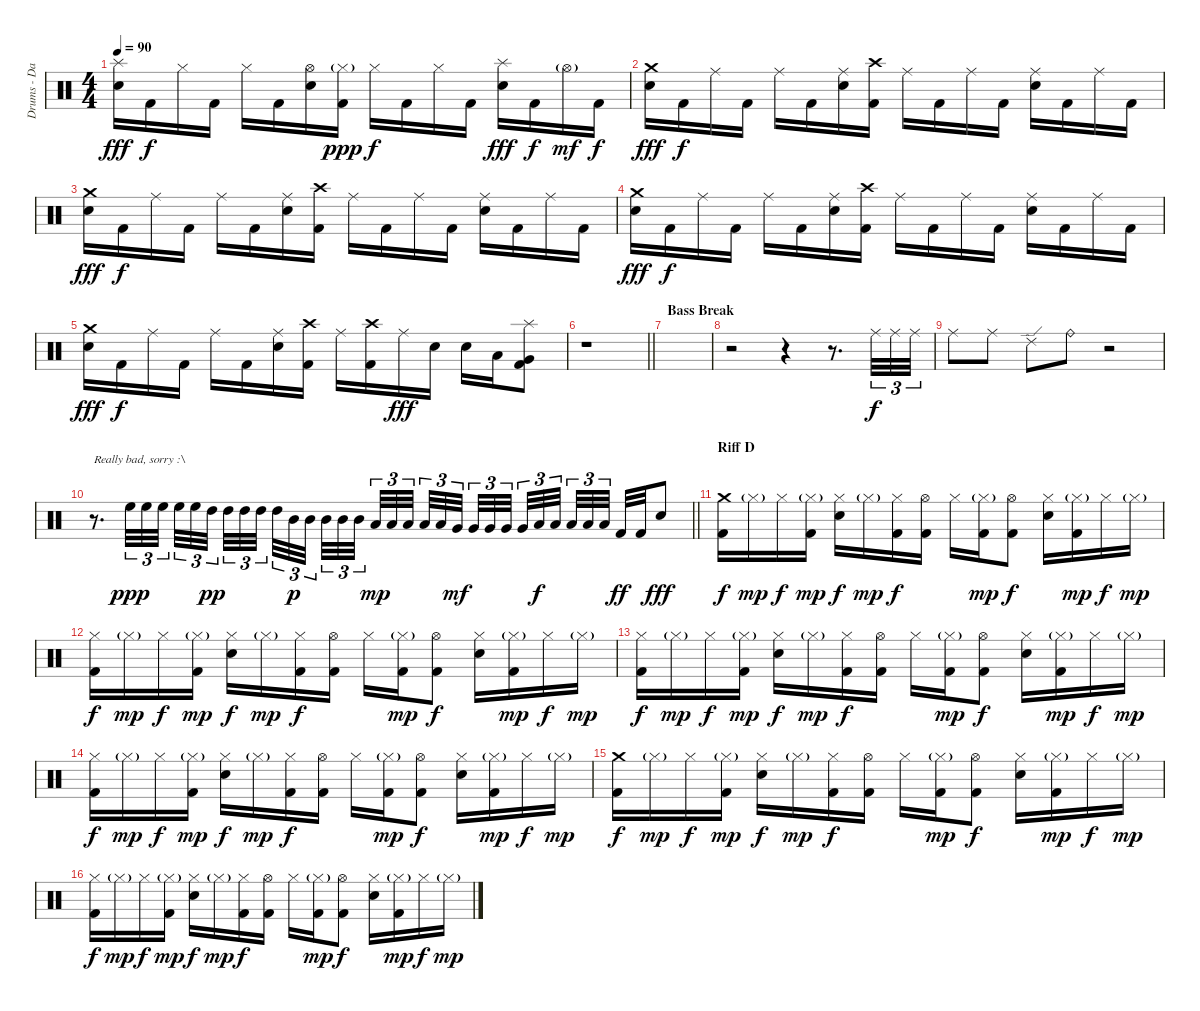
\track ("Drums - Danny Carey" "Drums - Da") {instrument percussion}
\staff {score}
\articulation defaults
\ts (4 4)
\tempo 90
\clef neutral
\ks c
("Splash (hit)" "Electric Snare (hit)").16{dy fff} "Kick (hit) 2".16{dy f} "Hi-Hat (closed)".16 "Kick (hit) 2".16 "Hi-Hat (closed)".16 "Kick (hit) 2".16 ("Electric Snare (hit)" "Hi-Hat (open)").16 ("Kick (hit) 2" "Hi-Hat (closed)"{g}).16{dy ppp} "Hi-Hat (closed)".16{dy f} "Kick (hit) 2".16 "Hi-Hat (closed)".16 "Kick (hit) 2".16 ("Splash (hit)" "Electric Snare (hit)").16{dy fff} "Kick (hit) 2".16{dy f} "Hi-Hat (open)"{g}.16{dy mf} "Kick (hit) 2".16{dy f} |
("Crash medium (hit)" "Electric Snare (hit)").16{dy fff} "Kick (hit) 2".16{dy f} "Ride (middle)".16 "Kick (hit) 2".16 "Ride (middle)".16 "Kick (hit) 2".16 ("Electric Snare (hit)" "Ride (middle)").16 ("Crash high (hit)" "Kick (hit) 2").16 "Ride (middle)".16 "Kick (hit) 2".16 "Ride (middle)".16 "Kick (hit) 2".16 ("Electric Snare (hit)" "Ride (middle)").16 "Kick (hit) 2".16 "Ride (middle)".16 "Kick (hit) 2".16 |
("Crash medium (hit)" "Electric Snare (hit)").16{dy fff} "Kick (hit) 2".16{dy f} "Ride (middle)".16 "Kick (hit) 2".16 "Ride (middle)".16 "Kick (hit) 2".16 ("Electric Snare (hit)" "Ride (middle)").16 ("Crash high (hit)" "Kick (hit) 2").16 "Ride (middle)".16 "Kick (hit) 2".16 "Ride (middle)".16 "Kick (hit) 2".16 ("Electric Snare (hit)" "Ride (middle)").16 "Kick (hit) 2".16 "Ride (middle)".16 "Kick (hit) 2".16 |
("Crash medium (hit)" "Electric Snare (hit)").16{dy fff} "Kick (hit) 2".16{dy f} "Ride (middle)".16 "Kick (hit) 2".16 "Ride (middle)".16 "Kick (hit) 2".16 ("Electric Snare (hit)" "Ride (middle)").16 ("Crash high (hit)" "Kick (hit) 2").16 "Ride (middle)".16 "Kick (hit) 2".16 "Ride (middle)".16 "Kick (hit) 2".16 ("Electric Snare (hit)" "Ride (middle)").16 "Kick (hit) 2".16 "Ride (middle)".16 "Kick (hit) 2".16 |
("Crash medium (hit)" "Electric Snare (hit)").16{dy fff} "Kick (hit) 2".16{dy f} "Ride (middle)".16 "Kick (hit) 2".16 "Ride (middle)".16 "Kick (hit) 2".16 ("Electric Snare (hit)" "Ride (middle)").16 ("Crash high (hit)" "Kick (hit) 2").16 "Ride (middle)".16 ("Crash high (hit)" "Kick (hit) 2").16 "Ride (middle)".16{dy fff} "Electric Snare (hit)".16 "Electric Snare (hit)".16 "Low Tom (hit)".16 ("Splash (hit)" "Very Low Tom (hit)" "Kick (hit) 2").8 |
\barLineRight lightlight
r.1 |
\section ("" "Bass Break")
|
r.2 r.4 r.8{d} "Ride (middle)".32{tu (3 2) dy f} "Ride (middle)".32{tu (3 2)} "Ride (middle)".32{tu (3 2)} |
"Ride (middle)".8 "Ride (middle)".8 "Ride (edge) 2".8 "Ride (bell)".8 r.2 |
\barLineRight lightlight
r.8{d txt "Really bad, sorry :\\"} "High Floor Tom (hit)".32{tu (3 2) dy ppp} "High Floor Tom (hit)".32{tu (3 2)} "High Floor Tom (hit)".32{tu (3 2)} "High Floor Tom (hit)".32{tu (3 2)} "High Floor Tom (hit)".32{tu (3 2)} "High Tom (hit)".32{tu (3 2) dy pp beam splitsecondary} "High Tom (hit)".32{tu (3 2)} "High Tom (hit)".32{tu (3 2)} "High Tom (hit)".32{tu (3 2) beam splitsecondary} "High Tom (hit)".32{tu (3 2)} "Mid Tom (hit)".32{tu (3 2) dy p} "Mid Tom (hit)".32{tu (3 2) beam splitsecondary} "Mid Tom (hit)".32{tu (3 2)} "Mid Tom (hit)".32{tu (3 2)} "Mid Tom (hit)".32{tu (3 2)} "Low Tom (hit)".32{tu (3 2) dy mp} "Low Tom (hit)".32{tu (3 2)} "Low Tom (hit)".32{tu (3 2) beam splitsecondary} "Low Tom (hit)".32{tu (3 2)} "Low Tom (hit)".32{tu (3 2)} "Very Low Tom (hit)".32{tu (3 2) dy mf beam splitsecondary} "Very Low Tom (hit)".32{tu (3 2)} "Very Low Tom (hit)".32{tu (3 2)} "Very Low Tom (hit)".32{tu (3 2) beam splitsecondary} "Very Low Tom (hit)".32{tu (3 2)} "Low Floor Tom (hit)".32{tu (3 2) dy f} "Low Floor Tom (hit)".32{tu (3 2)} "Low Floor Tom (hit)".32{tu (3 2)} "Low Floor Tom (hit)".32{tu (3 2)} "Low Floor Tom (hit)".32{tu (3 2) beam splitsecondary} "Kick (hit) 2".32{dy ff} "Kick (hit) 2".32 "Electric Snare (hit)".8{dy fff} |
\section ("" "Riff D")
("Crash medium (hit)" "Kick (hit) 2").16{dy f} "Hi-Hat (closed)"{g}.16{dy mp} "Hi-Hat (closed)".16{dy f} ("Kick (hit) 2" "Hi-Hat (closed)"{g}).16{dy mp} ("Electric Snare (hit)" "Hi-Hat (closed)").16{dy f} "Hi-Hat (closed)"{g}.16{dy mp} ("Kick (hit) 2" "Hi-Hat (closed)").16{dy f} ("Kick (hit) 2" "Hi-Hat (open)").16 "Hi-Hat (closed)".16 ("Kick (hit) 2" "Hi-Hat (closed)"{g}).16{dy mp} ("Kick (hit) 2" "Hi-Hat (open)").8{dy f} ("Electric Snare (hit)" "Hi-Hat (closed)").16 ("Kick (hit) 2" "Hi-Hat (closed)"{g}).16{dy mp} "Hi-Hat (closed)".16{dy f} "Hi-Hat (closed)"{g}.16{dy mp} |
("Kick (hit) 2" "Hi-Hat (closed)").16{dy f} "Hi-Hat (closed)"{g}.16{dy mp} "Hi-Hat (closed)".16{dy f} ("Kick (hit) 2" "Hi-Hat (closed)"{g}).16{dy mp} ("Electric Snare (hit)" "Hi-Hat (closed)").16{dy f} "Hi-Hat (closed)"{g}.16{dy mp} ("Kick (hit) 2" "Hi-Hat (closed)").16{dy f} ("Kick (hit) 2" "Hi-Hat (open)").16 "Hi-Hat (closed)".16 ("Kick (hit) 2" "Hi-Hat (closed)"{g}).16{dy mp} ("Kick (hit) 2" "Hi-Hat (open)").8{dy f} ("Electric Snare (hit)" "Hi-Hat (closed)").16 ("Kick (hit) 2" "Hi-Hat (closed)"{g}).16{dy mp} "Hi-Hat (closed)".16{dy f} "Hi-Hat (closed)"{g}.16{dy mp} |
("Kick (hit) 2" "Hi-Hat (closed)").16{dy f} "Hi-Hat (closed)"{g}.16{dy mp} "Hi-Hat (closed)".16{dy f} ("Kick (hit) 2" "Hi-Hat (closed)"{g}).16{dy mp} ("Electric Snare (hit)" "Hi-Hat (closed)").16{dy f} "Hi-Hat (closed)"{g}.16{dy mp} ("Kick (hit) 2" "Hi-Hat (closed)").16{dy f} ("Kick (hit) 2" "Hi-Hat (open)").16 "Hi-Hat (closed)".16 ("Kick (hit) 2" "Hi-Hat (closed)"{g}).16{dy mp} ("Kick (hit) 2" "Hi-Hat (open)").8{dy f} ("Electric Snare (hit)" "Hi-Hat (closed)").16 ("Kick (hit) 2" "Hi-Hat (closed)"{g}).16{dy mp} "Hi-Hat (closed)".16{dy f} "Hi-Hat (closed)"{g}.16{dy mp} |
("Kick (hit) 2" "Hi-Hat (closed)").16{dy f} "Hi-Hat (closed)"{g}.16{dy mp} "Hi-Hat (closed)".16{dy f} ("Kick (hit) 2" "Hi-Hat (closed)"{g}).16{dy mp} ("Electric Snare (hit)" "Hi-Hat (closed)").16{dy f} "Hi-Hat (closed)"{g}.16{dy mp} ("Kick (hit) 2" "Hi-Hat (closed)").16{dy f} ("Kick (hit) 2" "Hi-Hat (open)").16 "Hi-Hat (closed)".16 ("Kick (hit) 2" "Hi-Hat (closed)"{g}).16{dy mp} ("Kick (hit) 2" "Hi-Hat (open)").8{dy f} ("Electric Snare (hit)" "Hi-Hat (closed)").16 ("Kick (hit) 2" "Hi-Hat (closed)"{g}).16{dy mp} "Hi-Hat (closed)".16{dy f} "Hi-Hat (closed)"{g}.16{dy mp} |
("Crash medium (hit)" "Kick (hit) 2").16{dy f} "Hi-Hat (closed)"{g}.16{dy mp} "Hi-Hat (closed)".16{dy f} ("Kick (hit) 2" "Hi-Hat (closed)"{g}).16{dy mp} ("Electric Snare (hit)" "Hi-Hat (closed)").16{dy f} "Hi-Hat (closed)"{g}.16{dy mp} ("Kick (hit) 2" "Hi-Hat (closed)").16{dy f} ("Kick (hit) 2" "Hi-Hat (open)").16 "Hi-Hat (closed)".16 ("Kick (hit) 2" "Hi-Hat (closed)"{g}).16{dy mp} ("Kick (hit) 2" "Hi-Hat (open)").8{dy f} ("Electric Snare (hit)" "Hi-Hat (closed)").16 ("Kick (hit) 2" "Hi-Hat (closed)"{g}).16{dy mp} "Hi-Hat (closed)".16{dy f} "Hi-Hat (closed)"{g}.16{dy mp} |
("Kick (hit) 2" "Hi-Hat (closed)").16{dy f} "Hi-Hat (closed)"{g}.16{dy mp} "Hi-Hat (closed)".16{dy f} ("Kick (hit) 2" "Hi-Hat (closed)"{g}).16{dy mp} ("Electric Snare (hit)" "Hi-Hat (closed)").16{dy f} "Hi-Hat (closed)"{g}.16{dy mp} ("Kick (hit) 2" "Hi-Hat (closed)").16{dy f} ("Kick (hit) 2" "Hi-Hat (open)").16 "Hi-Hat (closed)".16 ("Kick (hit) 2" "Hi-Hat (closed)"{g}).16{dy mp} ("Kick (hit) 2" "Hi-Hat (open)").8{dy f} ("Electric Snare (hit)" "Hi-Hat (closed)").16 ("Kick (hit) 2" "Hi-Hat (closed)"{g}).16{dy mp} "Hi-Hat (closed)".16{dy f} "Hi-Hat (closed)"{g}.16{dy mp}
